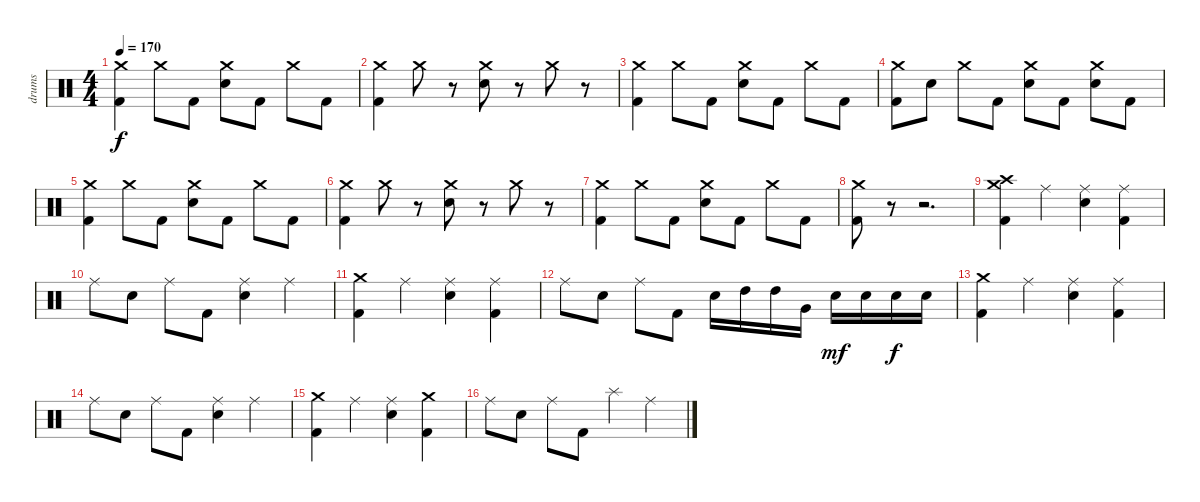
\track ("drums" "drums") {instrument percussion}
\staff {score}
\articulation defaults
\ts (4 4)
\tempo 170
\clef neutral
\ks c
("Crash medium (hit)" "Kick (hit) 2").4{dy f} "Crash medium (hit)".8 "Kick (hit) 2".8 ("Crash medium (hit)" "Electric Snare (hit)").8 "Kick (hit) 2".8 "Crash medium (hit)".8 "Kick (hit) 2".8 |
("Crash medium (hit)" "Kick (hit) 2").4 "Crash medium (hit)".8 r.8 ("Crash medium (hit)" "Electric Snare (hit)").8 r.8 "Crash medium (hit)".8 r.8 |
("Crash medium (hit)" "Kick (hit) 2").4 "Crash medium (hit)".8 "Kick (hit) 2".8 ("Crash medium (hit)" "Electric Snare (hit)").8 "Kick (hit) 2".8 "Crash medium (hit)".8 "Kick (hit) 2".8 |
("Crash medium (hit)" "Kick (hit) 2").8 "Electric Snare (hit)".8 "Crash medium (hit)".8 "Kick (hit) 2".8 ("Crash medium (hit)" "Electric Snare (hit)").8 "Kick (hit) 2".8 ("Crash medium (hit)" "Electric Snare (hit)").8 "Kick (hit) 2".8 |
("Crash medium (hit)" "Kick (hit) 2").4 "Crash medium (hit)".8 "Kick (hit) 2".8 ("Crash medium (hit)" "Electric Snare (hit)").8 "Kick (hit) 2".8 "Crash medium (hit)".8 "Kick (hit) 2".8 |
("Crash medium (hit)" "Kick (hit) 2").4 "Crash medium (hit)".8 r.8 ("Crash medium (hit)" "Electric Snare (hit)").8 r.8 "Crash medium (hit)".8 r.8 |
("Crash medium (hit)" "Kick (hit) 2").4 "Crash medium (hit)".8 "Kick (hit) 2".8 ("Crash medium (hit)" "Electric Snare (hit)").8 "Kick (hit) 2".8 "Crash medium (hit)".8 "Kick (hit) 2".8 |
("Crash medium (hit)" "Kick (hit) 2").8 r.8 r.2{d} |
("Crash medium (hit)" "Crash high (hit)" "Kick (hit) 2").4 "Ride (middle)".4 ("Ride (middle)" "Electric Snare (hit)").4 ("Ride (middle)" "Kick (hit) 2").4 |
"Ride (middle)".8 "Electric Snare (hit)".8 "Ride (middle)".8 "Kick (hit) 2".8 ("Ride (middle)" "Electric Snare (hit)").4 "Ride (middle)".4 |
("Crash medium (hit)" "Kick (hit) 2").4 "Ride (middle)".4 ("Ride (middle)" "Electric Snare (hit)").4 ("Ride (middle)" "Kick (hit) 2").4 |
"Ride (middle)".8 "Electric Snare (hit)".8 "Ride (middle)".8 "Kick (hit) 2".8 "Electric Snare (hit)".16 "High Tom (hit)".16 "High Tom (hit)".16 "Very Low Tom (hit)".16 "Electric Snare (hit)".16{dy mf} "Electric Snare (hit)".16 "Electric Snare (hit)".16{dy f} "Electric Snare (hit)".16 |
("Crash medium (hit)" "Kick (hit) 2").4 "Ride (middle)".4 ("Ride (middle)" "Electric Snare (hit)").4 ("Ride (middle)" "Kick (hit) 2").4 |
"Ride (middle)".8 "Electric Snare (hit)".8 "Ride (middle)".8 "Kick (hit) 2".8 ("Ride (middle)" "Electric Snare (hit)").4 "Ride (middle)".4 |
("Crash medium (hit)" "Kick (hit) 2").4 "Ride (middle)".4 ("Ride (middle)" "Electric Snare (hit)").4 ("Crash medium (hit)" "Kick (hit) 2").4 |
"Ride (middle)".8 "Electric Snare (hit)".8 "Ride (middle)".8 "Kick (hit) 2".8 "Splash (hit)".4 "Ride (middle)".4
